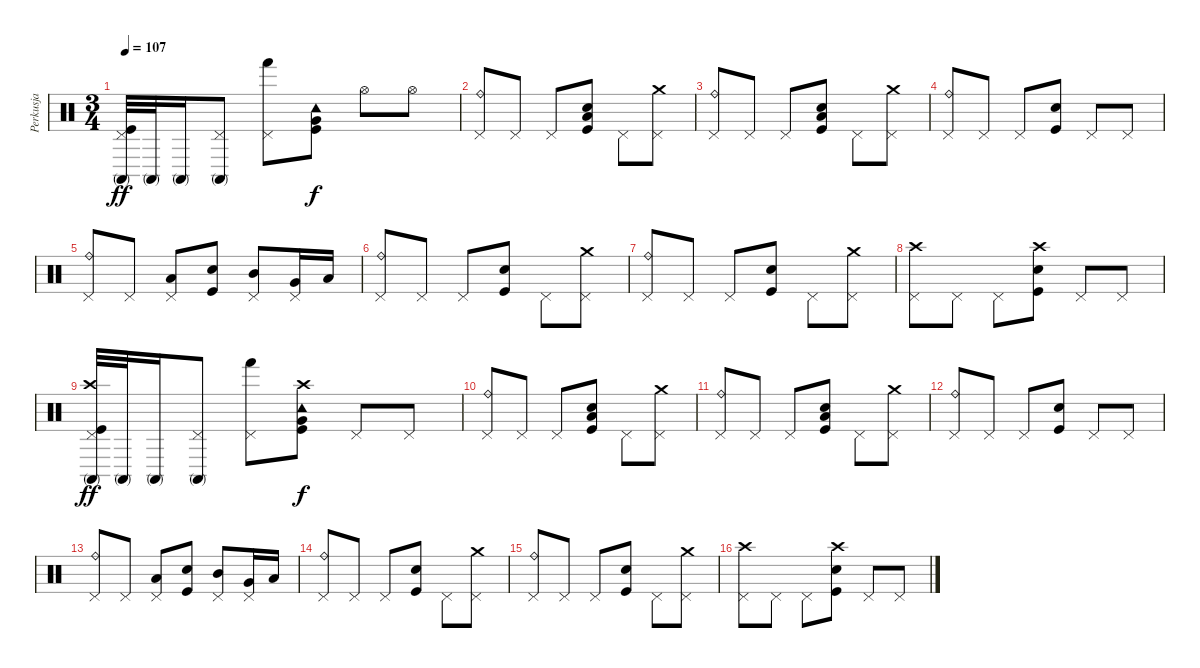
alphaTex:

\track ("Perkusja" "Perkusja") {instrument percussion}
\staff {score}
\articulation defaults
\ts (3 4)
\tempo 107
\clef neutral
\ks c
("Conga high (mute)" "Pedal Hi-Hat (hit)" "Kick (hit)").32{dy ff} "Conga high (mute)".32 "Conga high (mute)".16 ("Conga high (mute)" "Pedal Hi-Hat (hit)").8 ("Hand (hit)" "Pedal Hi-Hat (hit)").8 ("Tambourine (hit)" "Very Low Tom (hit)" "Kick (hit)").8{dy f} "Hi-Hat (open)".8 "Hi-Hat (open)".8 |
("Pedal Hi-Hat (hit)" "Ride (bell)").8 "Pedal Hi-Hat (hit)".8 "Pedal Hi-Hat (hit)".8 ("Electric Snare (hit)" "Kick (hit)" "Low Tom (hit)").8 "Pedal Hi-Hat (hit)".8 ("Pedal Hi-Hat (hit)" "Crash medium (hit)").8 |
("Pedal Hi-Hat (hit)" "Ride (bell)").8 "Pedal Hi-Hat (hit)".8 "Pedal Hi-Hat (hit)".8 ("Electric Snare (hit)" "Kick (hit)" "Low Tom (hit)").8 "Pedal Hi-Hat (hit)".8 ("Pedal Hi-Hat (hit)" "Crash medium (hit)").8 |
("Pedal Hi-Hat (hit)" "Ride (bell)").8 "Pedal Hi-Hat (hit)".8 "Pedal Hi-Hat (hit)".8 ("Electric Snare (hit)" "Kick (hit)").8 "Pedal Hi-Hat (hit)".8 "Pedal Hi-Hat (hit)".8 |
("Pedal Hi-Hat (hit)" "Ride (bell)").8 "Pedal Hi-Hat (hit)".8 ("Pedal Hi-Hat (hit)" "Low Tom (hit)").8 ("Electric Snare (hit)" "Kick (hit)").8 ("Pedal Hi-Hat (hit)" "Mid Tom (hit)").8 ("Pedal Hi-Hat (hit)" "Very Low Tom (hit)").16 "Low Floor Tom (hit)".16 |
("Pedal Hi-Hat (hit)" "Ride (bell)").8 "Pedal Hi-Hat (hit)".8 "Pedal Hi-Hat (hit)".8 ("Electric Snare (hit)" "Kick (hit)").8 "Pedal Hi-Hat (hit)".8 ("Pedal Hi-Hat (hit)" "Crash medium (hit)").8 |
("Pedal Hi-Hat (hit)" "Ride (bell)").8 "Pedal Hi-Hat (hit)".8 "Pedal Hi-Hat (hit)".8 ("Electric Snare (hit)" "Kick (hit)").8 "Pedal Hi-Hat (hit)".8 ("Pedal Hi-Hat (hit)" "Crash medium (hit)").8 |
("Pedal Hi-Hat (hit)" "Crash high (hit)").8 "Pedal Hi-Hat (hit)".8 "Pedal Hi-Hat (hit)".8 ("Electric Snare (hit)" "Kick (hit)" "Crash high (hit)").8 "Pedal Hi-Hat (hit)".8 "Pedal Hi-Hat (hit)".8 |
("Conga high (mute)" "Pedal Hi-Hat (hit)" "Crash high (hit)" "Kick (hit)").32{dy ff} "Conga high (mute)".32 "Conga high (mute)".16 ("Conga high (mute)" "Pedal Hi-Hat (hit)").8 ("Hand (hit)" "Pedal Hi-Hat (hit)").8 ("Tambourine (hit)" "Very Low Tom (hit)" "Crash high (hit)" "Kick (hit)").8{dy f} "Pedal Hi-Hat (hit)".8 "Pedal Hi-Hat (hit)".8 |
("Pedal Hi-Hat (hit)" "Ride (bell)").8 "Pedal Hi-Hat (hit)".8 "Pedal Hi-Hat (hit)".8 ("Electric Snare (hit)" "Kick (hit)" "Low Tom (hit)").8 "Pedal Hi-Hat (hit)".8 ("Pedal Hi-Hat (hit)" "Crash medium (hit)").8 |
("Pedal Hi-Hat (hit)" "Ride (bell)").8 "Pedal Hi-Hat (hit)".8 "Pedal Hi-Hat (hit)".8 ("Electric Snare (hit)" "Kick (hit)" "Low Tom (hit)").8 "Pedal Hi-Hat (hit)".8 ("Pedal Hi-Hat (hit)" "Crash medium (hit)").8 |
("Pedal Hi-Hat (hit)" "Ride (bell)").8 "Pedal Hi-Hat (hit)".8 "Pedal Hi-Hat (hit)".8 ("Electric Snare (hit)" "Kick (hit)").8 "Pedal Hi-Hat (hit)".8 "Pedal Hi-Hat (hit)".8 |
("Pedal Hi-Hat (hit)" "Ride (bell)").8 "Pedal Hi-Hat (hit)".8 ("Pedal Hi-Hat (hit)" "Low Tom (hit)").8 ("Electric Snare (hit)" "Kick (hit)").8 ("Pedal Hi-Hat (hit)" "Mid Tom (hit)").8 ("Pedal Hi-Hat (hit)" "Very Low Tom (hit)").16 "Low Floor Tom (hit)".16 |
("Pedal Hi-Hat (hit)" "Ride (bell)").8 "Pedal Hi-Hat (hit)".8 "Pedal Hi-Hat (hit)".8 ("Electric Snare (hit)" "Kick (hit)").8 "Pedal Hi-Hat (hit)".8 ("Pedal Hi-Hat (hit)" "Crash medium (hit)").8 |
("Pedal Hi-Hat (hit)" "Ride (bell)").8 "Pedal Hi-Hat (hit)".8 "Pedal Hi-Hat (hit)".8 ("Electric Snare (hit)" "Kick (hit)").8 "Pedal Hi-Hat (hit)".8 ("Pedal Hi-Hat (hit)" "Crash medium (hit)").8 |
("Pedal Hi-Hat (hit)" "Crash high (hit)").8 "Pedal Hi-Hat (hit)".8 "Pedal Hi-Hat (hit)".8 ("Electric Snare (hit)" "Kick (hit)" "Crash high (hit)").8 "Pedal Hi-Hat (hit)".8 "Pedal Hi-Hat (hit)".8
